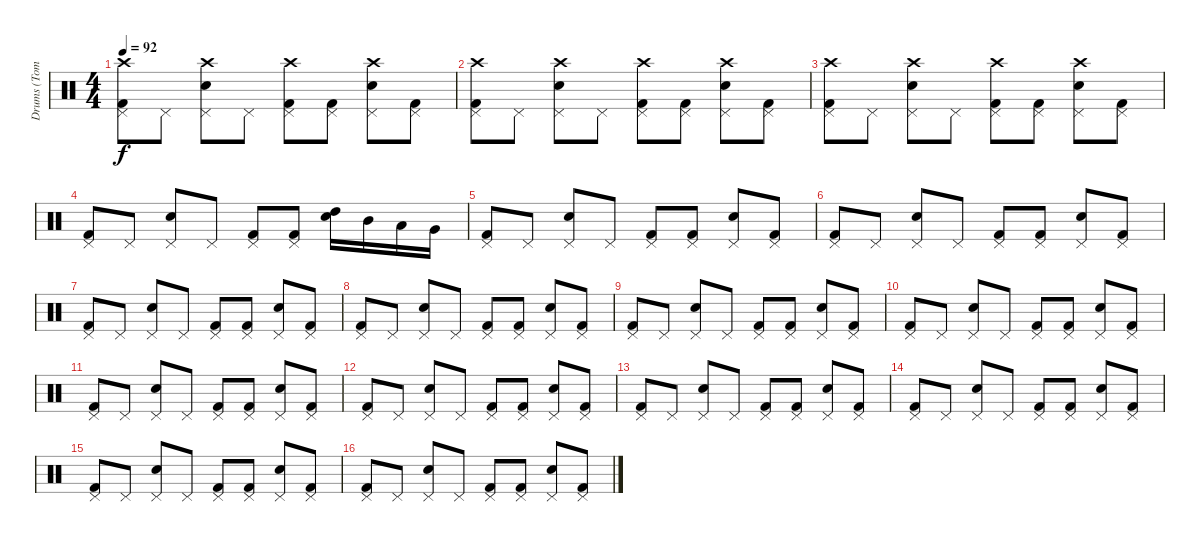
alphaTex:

\track ("Drums (Tommy?)" "Drums (Tom") {instrument percussion bank 7}
\staff {score}
\articulation defaults
\ts (4 4)
\tempo 92
\clef neutral
\ks c
("Crash high (hit)" "Pedal Hi-Hat (hit)" "Kick (hit) 2").8{dy f} "Pedal Hi-Hat (hit)".8 ("Crash high (hit)" "Pedal Hi-Hat (hit)" "Electric Snare (hit)").8 "Pedal Hi-Hat (hit)".8 ("Crash high (hit)" "Pedal Hi-Hat (hit)" "Kick (hit) 2").8 ("Pedal Hi-Hat (hit)" "Kick (hit) 2").8 ("Crash high (hit)" "Pedal Hi-Hat (hit)" "Electric Snare (hit)").8 ("Pedal Hi-Hat (hit)" "Kick (hit) 2").8 |
("Crash high (hit)" "Pedal Hi-Hat (hit)" "Kick (hit) 2").8 "Pedal Hi-Hat (hit)".8 ("Crash high (hit)" "Pedal Hi-Hat (hit)" "Electric Snare (hit)").8 "Pedal Hi-Hat (hit)".8 ("Crash high (hit)" "Pedal Hi-Hat (hit)" "Kick (hit) 2").8 ("Pedal Hi-Hat (hit)" "Kick (hit) 2").8 ("Crash high (hit)" "Pedal Hi-Hat (hit)" "Electric Snare (hit)").8 ("Pedal Hi-Hat (hit)" "Kick (hit) 2").8 |
("Crash high (hit)" "Pedal Hi-Hat (hit)" "Kick (hit) 2").8 "Pedal Hi-Hat (hit)".8 ("Crash high (hit)" "Pedal Hi-Hat (hit)" "Electric Snare (hit)").8 "Pedal Hi-Hat (hit)".8 ("Crash high (hit)" "Pedal Hi-Hat (hit)" "Kick (hit) 2").8 ("Pedal Hi-Hat (hit)" "Kick (hit) 2").8 ("Crash high (hit)" "Pedal Hi-Hat (hit)" "Electric Snare (hit)").8 ("Pedal Hi-Hat (hit)" "Kick (hit) 2").8 |
("Pedal Hi-Hat (hit)" "Kick (hit) 2").8 "Pedal Hi-Hat (hit)".8 ("Pedal Hi-Hat (hit)" "Electric Snare (hit)").8 "Pedal Hi-Hat (hit)".8 ("Pedal Hi-Hat (hit)" "Kick (hit) 2").8 ("Pedal Hi-Hat (hit)" "Kick (hit) 2").8 ("High Tom (hit)" "Electric Snare (hit)").16 "Mid Tom (hit)".16 "Low Tom (hit)".16 "Very Low Tom (hit)".16 |
("Pedal Hi-Hat (hit)" "Kick (hit) 2").8 "Pedal Hi-Hat (hit)".8 ("Pedal Hi-Hat (hit)" "Electric Snare (hit)").8 "Pedal Hi-Hat (hit)".8 ("Pedal Hi-Hat (hit)" "Kick (hit) 2").8 ("Pedal Hi-Hat (hit)" "Kick (hit) 2").8 ("Pedal Hi-Hat (hit)" "Electric Snare (hit)").8 ("Pedal Hi-Hat (hit)" "Kick (hit) 2").8 |
("Pedal Hi-Hat (hit)" "Kick (hit) 2").8 "Pedal Hi-Hat (hit)".8 ("Pedal Hi-Hat (hit)" "Electric Snare (hit)").8 "Pedal Hi-Hat (hit)".8 ("Pedal Hi-Hat (hit)" "Kick (hit) 2").8 ("Pedal Hi-Hat (hit)" "Kick (hit) 2").8 ("Pedal Hi-Hat (hit)" "Electric Snare (hit)").8 ("Pedal Hi-Hat (hit)" "Kick (hit) 2").8 |
("Pedal Hi-Hat (hit)" "Kick (hit) 2").8 "Pedal Hi-Hat (hit)".8 ("Pedal Hi-Hat (hit)" "Electric Snare (hit)").8 "Pedal Hi-Hat (hit)".8 ("Pedal Hi-Hat (hit)" "Kick (hit) 2").8 ("Pedal Hi-Hat (hit)" "Kick (hit) 2").8 ("Pedal Hi-Hat (hit)" "Electric Snare (hit)").8 ("Pedal Hi-Hat (hit)" "Kick (hit) 2").8 |
("Pedal Hi-Hat (hit)" "Kick (hit) 2").8 "Pedal Hi-Hat (hit)".8 ("Pedal Hi-Hat (hit)" "Electric Snare (hit)").8 "Pedal Hi-Hat (hit)".8 ("Pedal Hi-Hat (hit)" "Kick (hit) 2").8 ("Pedal Hi-Hat (hit)" "Kick (hit) 2").8 ("Pedal Hi-Hat (hit)" "Electric Snare (hit)").8 ("Pedal Hi-Hat (hit)" "Kick (hit) 2").8 |
("Pedal Hi-Hat (hit)" "Kick (hit) 2").8 "Pedal Hi-Hat (hit)".8 ("Pedal Hi-Hat (hit)" "Electric Snare (hit)").8 "Pedal Hi-Hat (hit)".8 ("Pedal Hi-Hat (hit)" "Kick (hit) 2").8 ("Pedal Hi-Hat (hit)" "Kick (hit) 2").8 ("Pedal Hi-Hat (hit)" "Electric Snare (hit)").8 ("Pedal Hi-Hat (hit)" "Kick (hit) 2").8 |
("Pedal Hi-Hat (hit)" "Kick (hit) 2").8 "Pedal Hi-Hat (hit)".8 ("Pedal Hi-Hat (hit)" "Electric Snare (hit)").8 "Pedal Hi-Hat (hit)".8 ("Pedal Hi-Hat (hit)" "Kick (hit) 2").8 ("Pedal Hi-Hat (hit)" "Kick (hit) 2").8 ("Pedal Hi-Hat (hit)" "Electric Snare (hit)").8 ("Pedal Hi-Hat (hit)" "Kick (hit) 2").8 |
("Pedal Hi-Hat (hit)" "Kick (hit) 2").8 "Pedal Hi-Hat (hit)".8 ("Pedal Hi-Hat (hit)" "Electric Snare (hit)").8 "Pedal Hi-Hat (hit)".8 ("Pedal Hi-Hat (hit)" "Kick (hit) 2").8 ("Pedal Hi-Hat (hit)" "Kick (hit) 2").8 ("Pedal Hi-Hat (hit)" "Electric Snare (hit)").8 ("Pedal Hi-Hat (hit)" "Kick (hit) 2").8 |
("Pedal Hi-Hat (hit)" "Kick (hit) 2").8 "Pedal Hi-Hat (hit)".8 ("Pedal Hi-Hat (hit)" "Electric Snare (hit)").8 "Pedal Hi-Hat (hit)".8 ("Pedal Hi-Hat (hit)" "Kick (hit) 2").8 ("Pedal Hi-Hat (hit)" "Kick (hit) 2").8 ("Pedal Hi-Hat (hit)" "Electric Snare (hit)").8 ("Pedal Hi-Hat (hit)" "Kick (hit) 2").8 |
("Pedal Hi-Hat (hit)" "Kick (hit) 2").8 "Pedal Hi-Hat (hit)".8 ("Pedal Hi-Hat (hit)" "Electric Snare (hit)").8 "Pedal Hi-Hat (hit)".8 ("Pedal Hi-Hat (hit)" "Kick (hit) 2").8 ("Pedal Hi-Hat (hit)" "Kick (hit) 2").8 ("Pedal Hi-Hat (hit)" "Electric Snare (hit)").8 ("Pedal Hi-Hat (hit)" "Kick (hit) 2").8 |
("Pedal Hi-Hat (hit)" "Kick (hit) 2").8 "Pedal Hi-Hat (hit)".8 ("Pedal Hi-Hat (hit)" "Electric Snare (hit)").8 "Pedal Hi-Hat (hit)".8 ("Pedal Hi-Hat (hit)" "Kick (hit) 2").8 ("Pedal Hi-Hat (hit)" "Kick (hit) 2").8 ("Pedal Hi-Hat (hit)" "Electric Snare (hit)").8 ("Pedal Hi-Hat (hit)" "Kick (hit) 2").8 |
("Pedal Hi-Hat (hit)" "Kick (hit) 2").8 "Pedal Hi-Hat (hit)".8 ("Pedal Hi-Hat (hit)" "Electric Snare (hit)").8 "Pedal Hi-Hat (hit)".8 ("Pedal Hi-Hat (hit)" "Kick (hit) 2").8 ("Pedal Hi-Hat (hit)" "Kick (hit) 2").8 ("Pedal Hi-Hat (hit)" "Electric Snare (hit)").8 ("Pedal Hi-Hat (hit)" "Kick (hit) 2").8 |
("Pedal Hi-Hat (hit)" "Kick (hit) 2").8 "Pedal Hi-Hat (hit)".8 ("Pedal Hi-Hat (hit)" "Electric Snare (hit)").8 "Pedal Hi-Hat (hit)".8 ("Pedal Hi-Hat (hit)" "Kick (hit) 2").8 ("Pedal Hi-Hat (hit)" "Kick (hit) 2").8 ("Pedal Hi-Hat (hit)" "Electric Snare (hit)").8 ("Pedal Hi-Hat (hit)" "Kick (hit) 2").8
